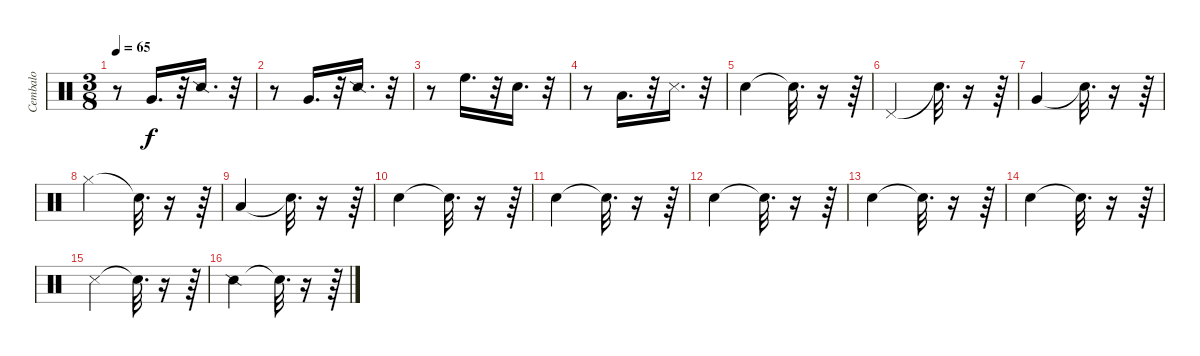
\track ("Cembalo" "Cembalo") {instrument percussion}
\staff {score}
\articulation defaults
\ts (3 8)
\tempo 65
\clef neutral
\ks c
r.8{dy f} "Very Low Tom (hit)".16{d} r.32 "Snare (side stick) 2".16{d} r.32 |
r.8 "Very Low Tom (hit)".16{d} r.32 "Snare (side stick) 2".16{d} r.32 |
r.8 "High Floor Tom (hit)".16{d} r.32 "Snare (hit) 2".16{d} r.32 |
r.8 "Low Tom (hit)".16{d} r.32 "Metronome (hit)".16{d} r.32 |
"Snare (hit) 2".4 "Snare (hit)"{t}.32{d} r.16 r.64 |
"Pedal Hi-Hat (hit)".4 "Snare (hit)"{t}.32{d} r.16 r.64 |
"Very Low Tom (hit)".4 "Snare (hit)"{t}.32{d} r.16 r.64 |
"Hi-Hat (closed)".4 "Snare (hit)"{t}.32{d} r.16 r.64 |
"Low Floor Tom (hit)".4 "Snare (hit)"{t}.32{d} r.16 r.64 |
"Electric Snare (hit)".4 "Snare (hit)"{t}.32{d} r.16 r.64 |
"Hand Clap (hit)".4 "Snare (hit)"{t}.32{d} r.16 r.64 |
"Hand Clap (hit)".4 "Snare (hit)"{t}.32{d} r.16 r.64 |
"Electric Snare (hit)".4 "Snare (hit)"{t}.32{d} r.16 r.64 |
"Metronome (bell)".4 "Snare (hit)"{t}.32{d} r.16 r.64 |
"Metronome (hit)".4 "Snare (hit)"{t}.32{d} r.16 r.64 |
"Snare (side stick) 2".4 "Snare (hit)"{t}.32{d} r.16 r.64
